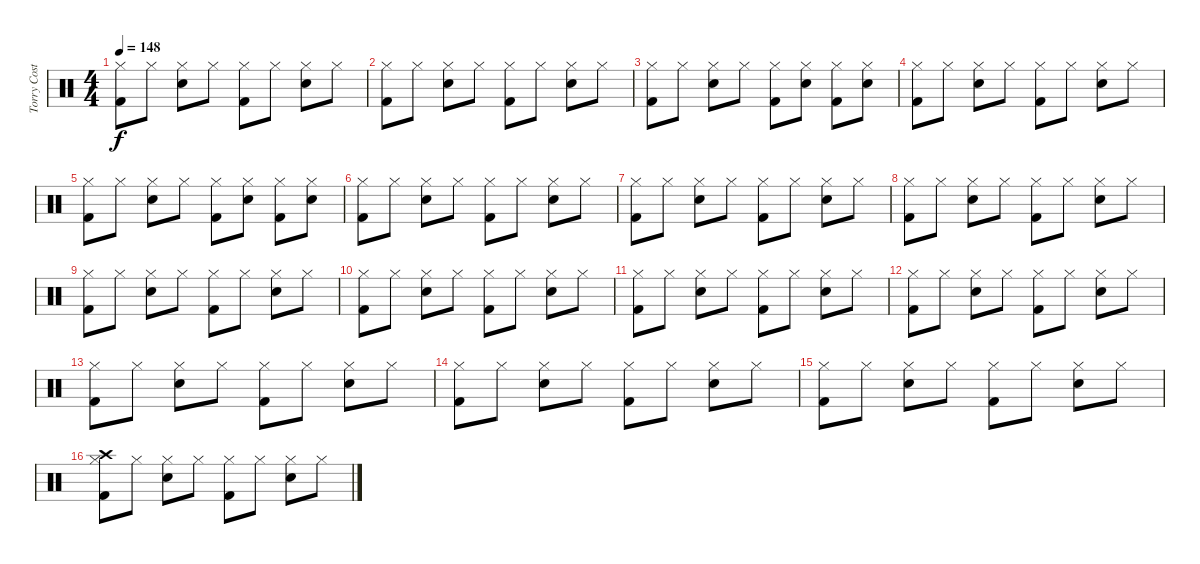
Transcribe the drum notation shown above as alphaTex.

\track ("Torry Costellano" "Torry Cost") {instrument percussion bank 127}
\staff {score}
\articulation defaults
\ts (4 4)
\tempo 148
\clef neutral
\ks c
("Hi-Hat (closed)" "Kick (hit) 2").8{dy f} "Hi-Hat (closed)".8 ("Hi-Hat (closed)" "Electric Snare (hit)").8 "Hi-Hat (closed)".8 ("Hi-Hat (closed)" "Kick (hit) 2").8 "Hi-Hat (closed)".8 ("Hi-Hat (closed)" "Electric Snare (hit)").8 "Hi-Hat (closed)".8 |
("Hi-Hat (closed)" "Kick (hit) 2").8 "Hi-Hat (closed)".8 ("Hi-Hat (closed)" "Electric Snare (hit)").8 "Hi-Hat (closed)".8 ("Hi-Hat (closed)" "Kick (hit) 2").8 "Hi-Hat (closed)".8 ("Hi-Hat (closed)" "Electric Snare (hit)").8 "Hi-Hat (closed)".8 |
("Hi-Hat (closed)" "Kick (hit) 2").8 "Hi-Hat (closed)".8 ("Hi-Hat (closed)" "Electric Snare (hit)").8 "Hi-Hat (closed)".8 ("Hi-Hat (closed)" "Kick (hit) 2").8 ("Hi-Hat (closed)" "Electric Snare (hit)").8 ("Hi-Hat (closed)" "Kick (hit) 2").8 ("Hi-Hat (closed)" "Electric Snare (hit)").8 |
("Hi-Hat (closed)" "Kick (hit) 2").8 "Hi-Hat (closed)".8 ("Hi-Hat (closed)" "Electric Snare (hit)").8 "Hi-Hat (closed)".8 ("Hi-Hat (closed)" "Kick (hit) 2").8 "Hi-Hat (closed)".8 ("Hi-Hat (closed)" "Electric Snare (hit)").8 "Hi-Hat (closed)".8 |
("Hi-Hat (closed)" "Kick (hit) 2").8 "Hi-Hat (closed)".8 ("Hi-Hat (closed)" "Electric Snare (hit)").8 "Hi-Hat (closed)".8 ("Hi-Hat (closed)" "Kick (hit) 2").8 ("Hi-Hat (closed)" "Electric Snare (hit)").8 ("Hi-Hat (closed)" "Kick (hit) 2").8 ("Hi-Hat (closed)" "Electric Snare (hit)").8 |
("Hi-Hat (closed)" "Kick (hit) 2").8 "Hi-Hat (closed)".8 ("Hi-Hat (closed)" "Electric Snare (hit)").8 "Hi-Hat (closed)".8 ("Hi-Hat (closed)" "Kick (hit) 2").8 "Hi-Hat (closed)".8 ("Hi-Hat (closed)" "Electric Snare (hit)").8 "Hi-Hat (closed)".8 |
("Hi-Hat (closed)" "Kick (hit) 2").8 "Hi-Hat (closed)".8 ("Hi-Hat (closed)" "Electric Snare (hit)").8 "Hi-Hat (closed)".8 ("Hi-Hat (closed)" "Kick (hit) 2").8 "Hi-Hat (closed)".8 ("Hi-Hat (closed)" "Electric Snare (hit)").8 "Hi-Hat (closed)".8 |
("Hi-Hat (closed)" "Kick (hit) 2").8 "Hi-Hat (closed)".8 ("Hi-Hat (closed)" "Electric Snare (hit)").8 "Hi-Hat (closed)".8 ("Hi-Hat (closed)" "Kick (hit) 2").8 "Hi-Hat (closed)".8 ("Hi-Hat (closed)" "Electric Snare (hit)").8 "Hi-Hat (closed)".8 |
("Hi-Hat (closed)" "Kick (hit) 2").8 "Hi-Hat (closed)".8 ("Hi-Hat (closed)" "Electric Snare (hit)").8 "Hi-Hat (closed)".8 ("Hi-Hat (closed)" "Kick (hit) 2").8 "Hi-Hat (closed)".8 ("Hi-Hat (closed)" "Electric Snare (hit)").8 "Hi-Hat (closed)".8 |
("Hi-Hat (closed)" "Kick (hit) 2").8 "Hi-Hat (closed)".8 ("Hi-Hat (closed)" "Electric Snare (hit)").8 "Hi-Hat (closed)".8 ("Hi-Hat (closed)" "Kick (hit) 2").8 "Hi-Hat (closed)".8 ("Hi-Hat (closed)" "Electric Snare (hit)").8 "Hi-Hat (closed)".8 |
("Hi-Hat (closed)" "Kick (hit) 2").8 "Hi-Hat (closed)".8 ("Hi-Hat (closed)" "Electric Snare (hit)").8 "Hi-Hat (closed)".8 ("Hi-Hat (closed)" "Kick (hit) 2").8 "Hi-Hat (closed)".8 ("Hi-Hat (closed)" "Electric Snare (hit)").8 "Hi-Hat (closed)".8 |
("Hi-Hat (closed)" "Kick (hit) 2").8 "Hi-Hat (closed)".8 ("Hi-Hat (closed)" "Electric Snare (hit)").8 "Hi-Hat (closed)".8 ("Hi-Hat (closed)" "Kick (hit) 2").8 "Hi-Hat (closed)".8 ("Hi-Hat (closed)" "Electric Snare (hit)").8 "Hi-Hat (closed)".8 |
("Hi-Hat (closed)" "Kick (hit) 2").8 "Hi-Hat (closed)".8 ("Hi-Hat (closed)" "Electric Snare (hit)").8 "Hi-Hat (closed)".8 ("Hi-Hat (closed)" "Kick (hit) 2").8 "Hi-Hat (closed)".8 ("Hi-Hat (closed)" "Electric Snare (hit)").8 "Hi-Hat (closed)".8 |
("Hi-Hat (closed)" "Kick (hit) 2").8 "Hi-Hat (closed)".8 ("Hi-Hat (closed)" "Electric Snare (hit)").8 "Hi-Hat (closed)".8 ("Hi-Hat (closed)" "Kick (hit) 2").8 "Hi-Hat (closed)".8 ("Hi-Hat (closed)" "Electric Snare (hit)").8 "Hi-Hat (closed)".8 |
("Hi-Hat (closed)" "Kick (hit) 2").8 "Hi-Hat (closed)".8 ("Hi-Hat (closed)" "Electric Snare (hit)").8 "Hi-Hat (closed)".8 ("Hi-Hat (closed)" "Kick (hit) 2").8 "Hi-Hat (closed)".8 ("Hi-Hat (closed)" "Electric Snare (hit)").8 "Hi-Hat (closed)".8 |
("Crash high (hit)" "Hi-Hat (closed)" "Kick (hit) 2").8 "Hi-Hat (closed)".8 ("Hi-Hat (closed)" "Electric Snare (hit)").8 "Hi-Hat (closed)".8 ("Hi-Hat (closed)" "Kick (hit) 2").8 "Hi-Hat (closed)".8 ("Hi-Hat (closed)" "Electric Snare (hit)").8 "Hi-Hat (closed)".8
